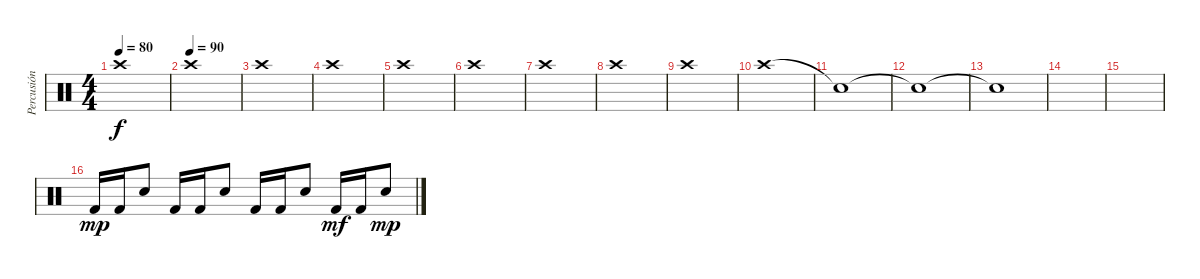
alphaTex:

\track ("Percusión" "Percusión") {instrument percussion}
\staff {score}
\articulation defaults
\ts (4 4)
\tempo 80
\clef neutral
\ks c "Crash high (hit)".1{dy f}
|
\tempo (90)
"Crash high (hit)".1 |
"Crash high (hit)".1 |
"Crash high (hit)".1 |
"Crash high (hit)".1 |
"Crash high (hit)".1 |
"Crash high (hit)".1 |
"Crash high (hit)".1 |
"Crash high (hit)".1 |
"Crash high (hit)".1 |
"Snare (hit)"{t}.1 |
"Snare (hit)"{t}.1 |
"Snare (hit)"{t}.1 |
|
|
"Kick (hit) 2".16{dy mp} "Kick (hit) 2".16 "Electric Snare (hit)".8 "Kick (hit) 2".16 "Kick (hit) 2".16 "Electric Snare (hit)".8 "Kick (hit) 2".16 "Kick (hit) 2".16 "Electric Snare (hit)".8 "Kick (hit) 2".16{dy mf} "Kick (hit) 2".16 "Electric Snare (hit)".8{dy mp}
